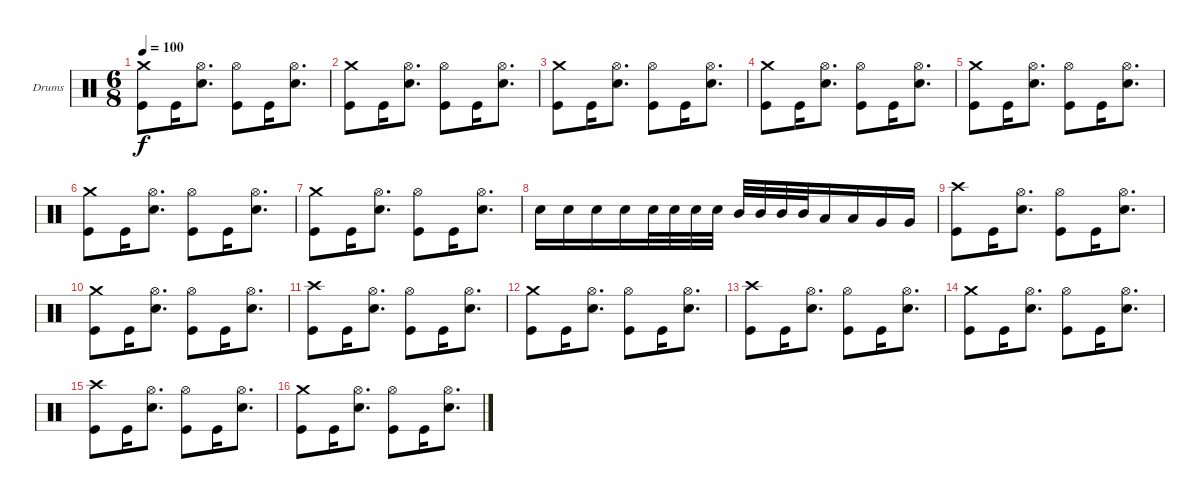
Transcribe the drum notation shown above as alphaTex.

\defaultSystemsLayout 4
\bracketExtendMode groupsimilarinstruments
\firstSystemTrackNameOrientation horizontal
\otherSystemsTrackNameOrientation horizontal
\track ("Stefan Schwarzmann" "Drums") {instrument percussion}
\staff {score}
\articulation defaults
\ts (6 8)
\tempo 100
\clef neutral
\ks c
("Kick (hit)" "Crash medium (hit)").8{dy f} "Kick (hit)".16 ("Snare (hit) 2" "Hi-Hat (open)").8{d} ("Kick (hit)" "Hi-Hat (open)").8 "Kick (hit)".16 ("Snare (hit) 2" "Hi-Hat (open)").8{d} |
("Kick (hit)" "Crash medium (hit)").8 "Kick (hit)".16 ("Snare (hit) 2" "Hi-Hat (open)").8{d} ("Kick (hit)" "Hi-Hat (open)").8 "Kick (hit)".16 ("Snare (hit) 2" "Hi-Hat (open)").8{d} |
("Kick (hit)" "Crash medium (hit)").8 "Kick (hit)".16 ("Snare (hit) 2" "Hi-Hat (open)").8{d} ("Kick (hit)" "Hi-Hat (open)").8 "Kick (hit)".16 ("Snare (hit) 2" "Hi-Hat (open)").8{d} |
("Kick (hit)" "Crash medium (hit)").8 "Kick (hit)".16 ("Snare (hit) 2" "Hi-Hat (open)").8{d} ("Kick (hit)" "Hi-Hat (open)").8 "Kick (hit)".16 ("Snare (hit) 2" "Hi-Hat (open)").8{d} |
("Kick (hit)" "Crash medium (hit)").8 "Kick (hit)".16 ("Snare (hit) 2" "Hi-Hat (open)").8{d} ("Kick (hit)" "Hi-Hat (open)").8 "Kick (hit)".16 ("Snare (hit) 2" "Hi-Hat (open)").8{d} |
("Kick (hit)" "Crash medium (hit)").8 "Kick (hit)".16 ("Snare (hit) 2" "Hi-Hat (open)").8{d} ("Kick (hit)" "Hi-Hat (open)").8 "Kick (hit)".16 ("Snare (hit) 2" "Hi-Hat (open)").8{d} |
("Kick (hit)" "Crash medium (hit)").8 "Kick (hit)".16 ("Snare (hit) 2" "Hi-Hat (open)").8{d} ("Kick (hit)" "Hi-Hat (open)").8 "Kick (hit)".16 ("Snare (hit) 2" "Hi-Hat (open)").8{d} |
"Snare (hit) 2".16 "Snare (hit) 2".16 "Snare (hit) 2".16 "Snare (hit) 2".16 "Snare (hit) 2".32 "Snare (hit) 2".32 "Snare (hit) 2".32 "Snare (hit) 2".32 "Mid Tom (hit)".32 "Mid Tom (hit)".32 "Mid Tom (hit)".32 "Mid Tom (hit)".32 "Low Tom (hit)".16 "Low Tom (hit)".16 "Very Low Tom (hit)".16 "Very Low Tom (hit)".16 |
("Kick (hit)" "Crash high (hit)").8 "Kick (hit)".16 ("Snare (hit) 2" "Hi-Hat (open)").8{d} ("Kick (hit)" "Hi-Hat (open)").8 "Kick (hit)".16 ("Snare (hit) 2" "Hi-Hat (open)").8{d} |
("Kick (hit)" "Crash medium (hit)").8 "Kick (hit)".16 ("Snare (hit) 2" "Hi-Hat (open)").8{d} ("Kick (hit)" "Hi-Hat (open)").8 "Kick (hit)".16 ("Snare (hit) 2" "Hi-Hat (open)").8{d} |
("Kick (hit)" "Crash high (hit)").8 "Kick (hit)".16 ("Snare (hit) 2" "Hi-Hat (open)").8{d} ("Kick (hit)" "Hi-Hat (open)").8 "Kick (hit)".16 ("Snare (hit) 2" "Hi-Hat (open)").8{d} |
("Kick (hit)" "Crash medium (hit)").8 "Kick (hit)".16 ("Snare (hit) 2" "Hi-Hat (open)").8{d} ("Kick (hit)" "Hi-Hat (open)").8 "Kick (hit)".16 ("Snare (hit) 2" "Hi-Hat (open)").8{d} |
("Kick (hit)" "Crash high (hit)").8 "Kick (hit)".16 ("Snare (hit) 2" "Hi-Hat (open)").8{d} ("Kick (hit)" "Hi-Hat (open)").8 "Kick (hit)".16 ("Snare (hit) 2" "Hi-Hat (open)").8{d} |
("Kick (hit)" "Crash medium (hit)").8 "Kick (hit)".16 ("Snare (hit) 2" "Hi-Hat (open)").8{d} ("Kick (hit)" "Hi-Hat (open)").8 "Kick (hit)".16 ("Snare (hit) 2" "Hi-Hat (open)").8{d} |
("Kick (hit)" "Crash high (hit)").8 "Kick (hit)".16 ("Snare (hit) 2" "Hi-Hat (open)").8{d} ("Kick (hit)" "Hi-Hat (open)").8 "Kick (hit)".16 ("Snare (hit) 2" "Hi-Hat (open)").8{d} |
("Kick (hit)" "Crash medium (hit)").8 "Kick (hit)".16 ("Snare (hit) 2" "Hi-Hat (open)").8{d} ("Kick (hit)" "Hi-Hat (open)").8 "Kick (hit)".16 ("Snare (hit) 2" "Hi-Hat (open)").8{d}
